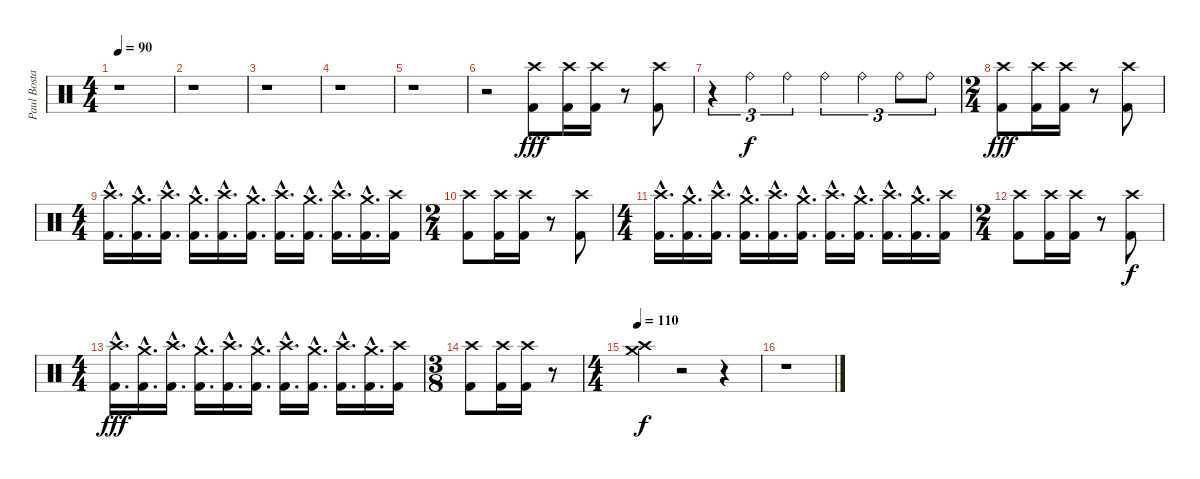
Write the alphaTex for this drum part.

\track ("Paul Bostaph" "Paul Bosta") {instrument percussion}
\staff {score}
\articulation defaults
\ts (4 4)
\tempo 90
\clef neutral
\ks c
r.1{dy fff} |
r.1 |
r.1 |
r.1 |
r.1 |
r.2 ("Kick (hit) 2" "Crash high (hit)").8 ("Kick (hit) 2" "Crash high (hit)").16 ("Kick (hit) 2" "Crash high (hit)").16 r.8 ("Kick (hit) 2" "Crash high (hit)").8 |
r.4{tu (3 2)} "Ride (bell)".4{tu (3 2) dy f} "Ride (bell)".4{tu (3 2)} "Ride (bell)".4{tu (3 2)} "Ride (bell)".4{tu (3 2)} "Ride (bell)".8{tu (3 2)} "Ride (bell)".8{tu (3 2)} |
\ts (2 4)
("Kick (hit) 2" "Crash high (hit)").8{dy fff} ("Kick (hit) 2" "Crash high (hit)").16 ("Kick (hit) 2" "Crash high (hit)").16 r.8 ("Kick (hit) 2" "Crash high (hit)").8 |
\ts (4 4)
("Kick (hit) 2"{hac} "Crash high (hit)"{hac}).16{d} ("Kick (hit) 2"{hac} "Crash medium (hit)"{hac}).16{d} ("Kick (hit) 2"{hac} "Crash high (hit)"{hac}).16{d} ("Kick (hit) 2"{hac} "Crash medium (hit)"{hac}).16{d} ("Kick (hit) 2"{hac} "Crash high (hit)"{hac}).16{d} ("Kick (hit) 2"{hac} "Crash medium (hit)"{hac}).16{d} ("Kick (hit) 2"{hac} "Crash high (hit)"{hac}).16{d} ("Kick (hit) 2"{hac} "Crash medium (hit)"{hac}).16{d} ("Kick (hit) 2"{hac} "Crash high (hit)"{hac}).16{d} ("Kick (hit) 2"{hac} "Crash medium (hit)"{hac}).16{d} ("Kick (hit) 2" "Crash high (hit)").16 |
\ts (2 4)
("Kick (hit) 2" "Crash high (hit)").8 ("Kick (hit) 2" "Crash high (hit)").16 ("Kick (hit) 2" "Crash high (hit)").16 r.8 ("Kick (hit) 2" "Crash high (hit)").8 |
\ts (4 4)
("Kick (hit) 2"{hac} "Crash high (hit)"{hac}).16{d} ("Kick (hit) 2"{hac} "Crash medium (hit)"{hac}).16{d} ("Kick (hit) 2"{hac} "Crash high (hit)"{hac}).16{d} ("Kick (hit) 2"{hac} "Crash medium (hit)"{hac}).16{d} ("Kick (hit) 2"{hac} "Crash high (hit)"{hac}).16{d} ("Kick (hit) 2"{hac} "Crash medium (hit)"{hac}).16{d} ("Kick (hit) 2"{hac} "Crash high (hit)"{hac}).16{d} ("Kick (hit) 2"{hac} "Crash medium (hit)"{hac}).16{d} ("Kick (hit) 2"{hac} "Crash high (hit)"{hac}).16{d} ("Kick (hit) 2"{hac} "Crash medium (hit)"{hac}).16{d} ("Kick (hit) 2" "Crash high (hit)").16 |
\ts (2 4)
("Kick (hit) 2" "Crash high (hit)").8 ("Kick (hit) 2" "Crash high (hit)").16 ("Kick (hit) 2" "Crash high (hit)").16 r.8 ("Kick (hit) 2" "Crash high (hit)").8{dy f} |
\ts (4 4)
("Kick (hit) 2"{hac} "Crash high (hit)"{hac}).16{d dy fff} ("Kick (hit) 2"{hac} "Crash medium (hit)"{hac}).16{d} ("Kick (hit) 2"{hac} "Crash high (hit)"{hac}).16{d} ("Kick (hit) 2"{hac} "Crash medium (hit)"{hac}).16{d} ("Kick (hit) 2"{hac} "Crash high (hit)"{hac}).16{d} ("Kick (hit) 2"{hac} "Crash medium (hit)"{hac}).16{d} ("Kick (hit) 2"{hac} "Crash high (hit)"{hac}).16{d} ("Kick (hit) 2"{hac} "Crash medium (hit)"{hac}).16{d} ("Kick (hit) 2"{hac} "Crash high (hit)"{hac}).16{d} ("Kick (hit) 2"{hac} "Crash medium (hit)"{hac}).16{d} ("Kick (hit) 2" "Crash high (hit)").16 |
\ts (3 8)
("Kick (hit) 2" "Crash high (hit)").8 ("Kick (hit) 2" "Crash high (hit)").16 ("Kick (hit) 2" "Crash high (hit)").16 r.8 |
\ts (4 4)
\tempo 110
("Crash high (hit)" "Crash medium (hit)").4{dy f} r.2 r.4 |
r.1
